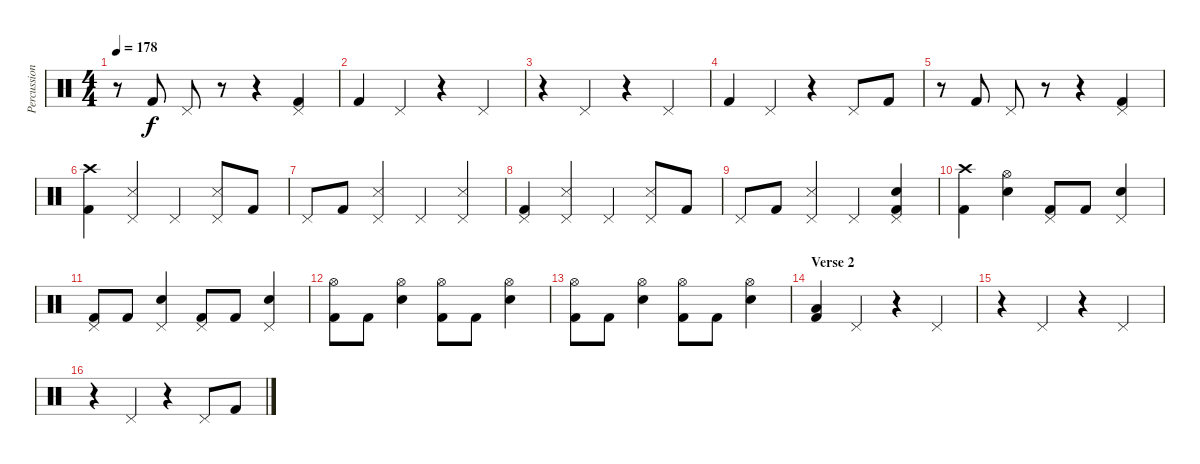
\track ("Percussion" "Percussion") {instrument percussion}
\staff {score}
\articulation defaults
\ts (4 4)
\tempo 178
\clef neutral
\ks c
r.8{dy f} "Kick (hit) 2".8 "Pedal Hi-Hat (hit)".8 r.8 r.4 ("Pedal Hi-Hat (hit)" "Kick (hit) 2").4 |
"Kick (hit) 2".4 "Pedal Hi-Hat (hit)".4 r.4 "Pedal Hi-Hat (hit)".4 |
r.4 "Pedal Hi-Hat (hit)".4 r.4 "Pedal Hi-Hat (hit)".4 |
"Kick (hit) 2".4 "Pedal Hi-Hat (hit)".4 r.4 "Pedal Hi-Hat (hit)".8 "Kick (hit) 2".8 |
r.8 "Kick (hit) 2".8 "Pedal Hi-Hat (hit)".8 r.8 r.4 ("Pedal Hi-Hat (hit)" "Kick (hit) 2").4 |
("Crash high (hit)" "Kick (hit) 2").4 ("Pedal Hi-Hat (hit)" "Snare (side stick) 3").4 "Pedal Hi-Hat (hit)".4 ("Pedal Hi-Hat (hit)" "Snare (side stick) 3").8 "Kick (hit) 2".8 |
"Pedal Hi-Hat (hit)".8 "Kick (hit) 2".8 ("Pedal Hi-Hat (hit)" "Snare (side stick) 3").4 "Pedal Hi-Hat (hit)".4 ("Pedal Hi-Hat (hit)" "Snare (side stick) 3").4 |
("Pedal Hi-Hat (hit)" "Kick (hit) 2").4 ("Pedal Hi-Hat (hit)" "Snare (side stick) 3").4 "Pedal Hi-Hat (hit)".4 ("Pedal Hi-Hat (hit)" "Snare (side stick) 3").8 "Kick (hit) 2".8 |
"Pedal Hi-Hat (hit)".8 "Kick (hit) 2".8 ("Pedal Hi-Hat (hit)" "Snare (side stick) 3").4 "Pedal Hi-Hat (hit)".4 ("Pedal Hi-Hat (hit)" "Snare (hit) 2" "Kick (hit) 2").4 |
("Crash high (hit)" "Kick (hit) 2").4 ("Hi-Hat (open)" "Snare (hit) 2").4 ("Pedal Hi-Hat (hit)" "Kick (hit) 2").8 "Kick (hit) 2".8 ("Pedal Hi-Hat (hit)" "Snare (hit) 2").4 |
("Pedal Hi-Hat (hit)" "Kick (hit) 2").8 "Kick (hit) 2".8 ("Pedal Hi-Hat (hit)" "Snare (hit) 2").4 ("Pedal Hi-Hat (hit)" "Kick (hit) 2").8 "Kick (hit) 2".8 ("Pedal Hi-Hat (hit)" "Snare (hit) 2").4 |
("Hi-Hat (open)" "Kick (hit) 2").8 "Kick (hit) 2".8 ("Hi-Hat (open)" "Snare (hit) 2").4 ("Hi-Hat (open)" "Kick (hit) 2").8 "Kick (hit) 2".8 ("Hi-Hat (open)" "Snare (hit) 2").4 |
("Hi-Hat (open)" "Kick (hit) 2").8 "Kick (hit) 2".8 ("Hi-Hat (open)" "Snare (hit) 2").4 ("Hi-Hat (open)" "Kick (hit) 2").8 "Kick (hit) 2".8 ("Hi-Hat (open)" "Snare (hit) 2").4 |
\section ("" "Verse 2")
("Low Tom (hit)" "Kick (hit) 2").4 "Pedal Hi-Hat (hit)".4 r.4 "Pedal Hi-Hat (hit)".4 |
r.4 "Pedal Hi-Hat (hit)".4 r.4 "Pedal Hi-Hat (hit)".4 |
r.4 "Pedal Hi-Hat (hit)".4 r.4 "Pedal Hi-Hat (hit)".8 "Kick (hit) 2".8
